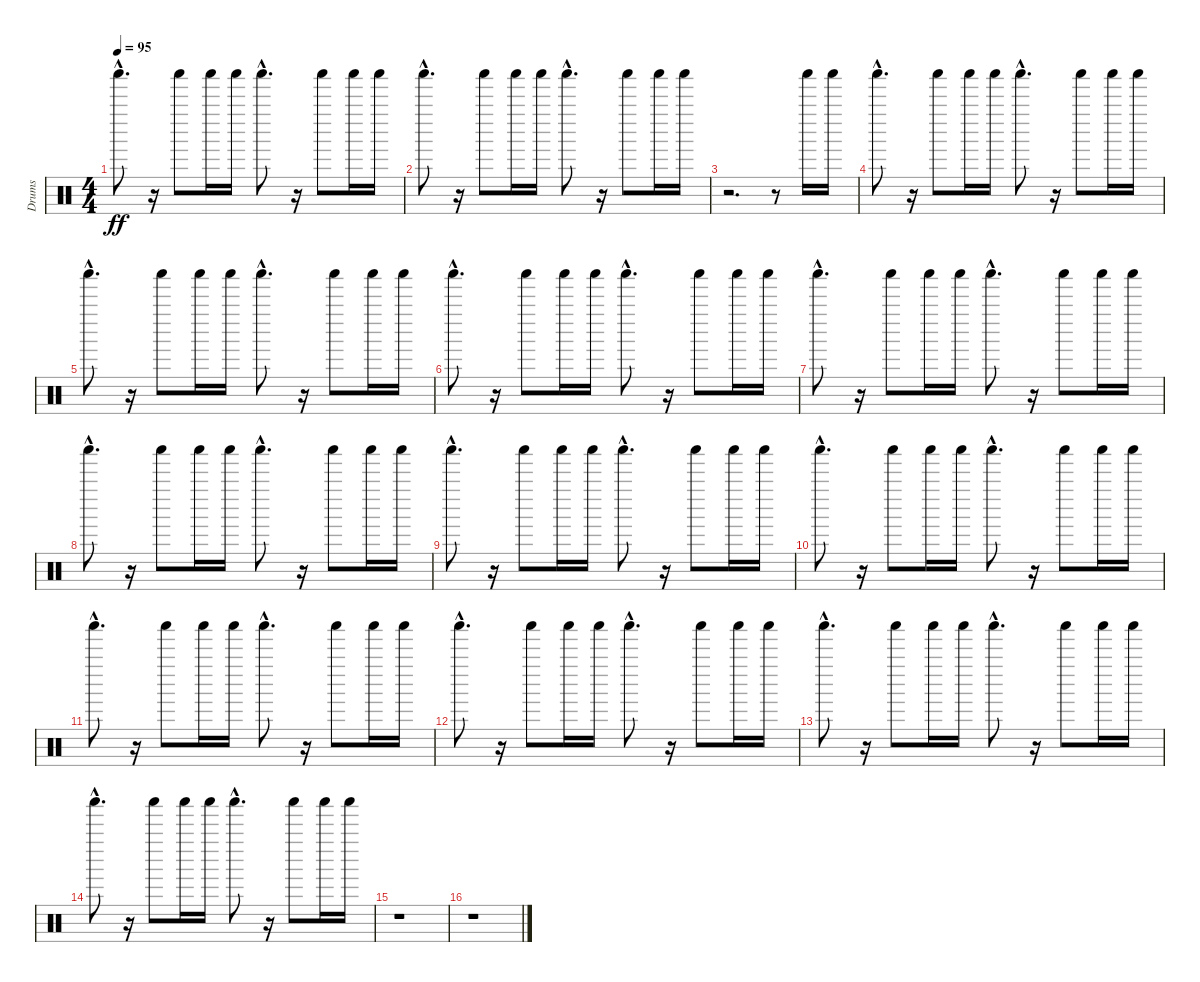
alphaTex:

\track ("Drums" "Drums") {instrument percussion}
\staff {score}
\articulation defaults
\ts (4 4)
\tempo 95
\clef neutral
\ks c "Shaker (hit)"{hac}.8{d dy ff}
r.16 "Shaker (hit)".8 "Shaker (hit)".16 "Shaker (hit)".16 "Shaker (hit)"{hac}.8{d} r.16 "Shaker (hit)".8 "Shaker (hit)".16 "Shaker (hit)".16 |
"Shaker (hit)"{hac}.8{d} r.16 "Shaker (hit)".8 "Shaker (hit)".16 "Shaker (hit)".16 "Shaker (hit)"{hac}.8{d} r.16 "Shaker (hit)".8 "Shaker (hit)".16 "Shaker (hit)".16 |
r.2{d} r.8 "Shaker (hit)".16 "Shaker (hit)".16 |
"Shaker (hit)"{hac}.8{d} r.16 "Shaker (hit)".8 "Shaker (hit)".16 "Shaker (hit)".16 "Shaker (hit)"{hac}.8{d} r.16 "Shaker (hit)".8 "Shaker (hit)".16 "Shaker (hit)".16 |
"Shaker (hit)"{hac}.8{d} r.16 "Shaker (hit)".8 "Shaker (hit)".16 "Shaker (hit)".16 "Shaker (hit)"{hac}.8{d} r.16 "Shaker (hit)".8 "Shaker (hit)".16 "Shaker (hit)".16 |
"Shaker (hit)"{hac}.8{d} r.16 "Shaker (hit)".8 "Shaker (hit)".16 "Shaker (hit)".16 "Shaker (hit)"{hac}.8{d} r.16 "Shaker (hit)".8 "Shaker (hit)".16 "Shaker (hit)".16 |
"Shaker (hit)"{hac}.8{d} r.16 "Shaker (hit)".8 "Shaker (hit)".16 "Shaker (hit)".16 "Shaker (hit)"{hac}.8{d} r.16 "Shaker (hit)".8 "Shaker (hit)".16 "Shaker (hit)".16 |
"Shaker (hit)"{hac}.8{d} r.16 "Shaker (hit)".8 "Shaker (hit)".16 "Shaker (hit)".16 "Shaker (hit)"{hac}.8{d} r.16 "Shaker (hit)".8 "Shaker (hit)".16 "Shaker (hit)".16 |
"Shaker (hit)"{hac}.8{d} r.16 "Shaker (hit)".8 "Shaker (hit)".16 "Shaker (hit)".16 "Shaker (hit)"{hac}.8{d} r.16 "Shaker (hit)".8 "Shaker (hit)".16 "Shaker (hit)".16 |
"Shaker (hit)"{hac}.8{d} r.16 "Shaker (hit)".8 "Shaker (hit)".16 "Shaker (hit)".16 "Shaker (hit)"{hac}.8{d} r.16 "Shaker (hit)".8 "Shaker (hit)".16 "Shaker (hit)".16 |
"Shaker (hit)"{hac}.8{d} r.16 "Shaker (hit)".8 "Shaker (hit)".16 "Shaker (hit)".16 "Shaker (hit)"{hac}.8{d} r.16 "Shaker (hit)".8 "Shaker (hit)".16 "Shaker (hit)".16 |
"Shaker (hit)"{hac}.8{d} r.16 "Shaker (hit)".8 "Shaker (hit)".16 "Shaker (hit)".16 "Shaker (hit)"{hac}.8{d} r.16 "Shaker (hit)".8 "Shaker (hit)".16 "Shaker (hit)".16 |
"Shaker (hit)"{hac}.8{d} r.16 "Shaker (hit)".8 "Shaker (hit)".16 "Shaker (hit)".16 "Shaker (hit)"{hac}.8{d} r.16 "Shaker (hit)".8 "Shaker (hit)".16 "Shaker (hit)".16 |
"Shaker (hit)"{hac}.8{d} r.16 "Shaker (hit)".8 "Shaker (hit)".16 "Shaker (hit)".16 "Shaker (hit)"{hac}.8{d} r.16 "Shaker (hit)".8 "Shaker (hit)".16 "Shaker (hit)".16 |
r.1 |
r.1
